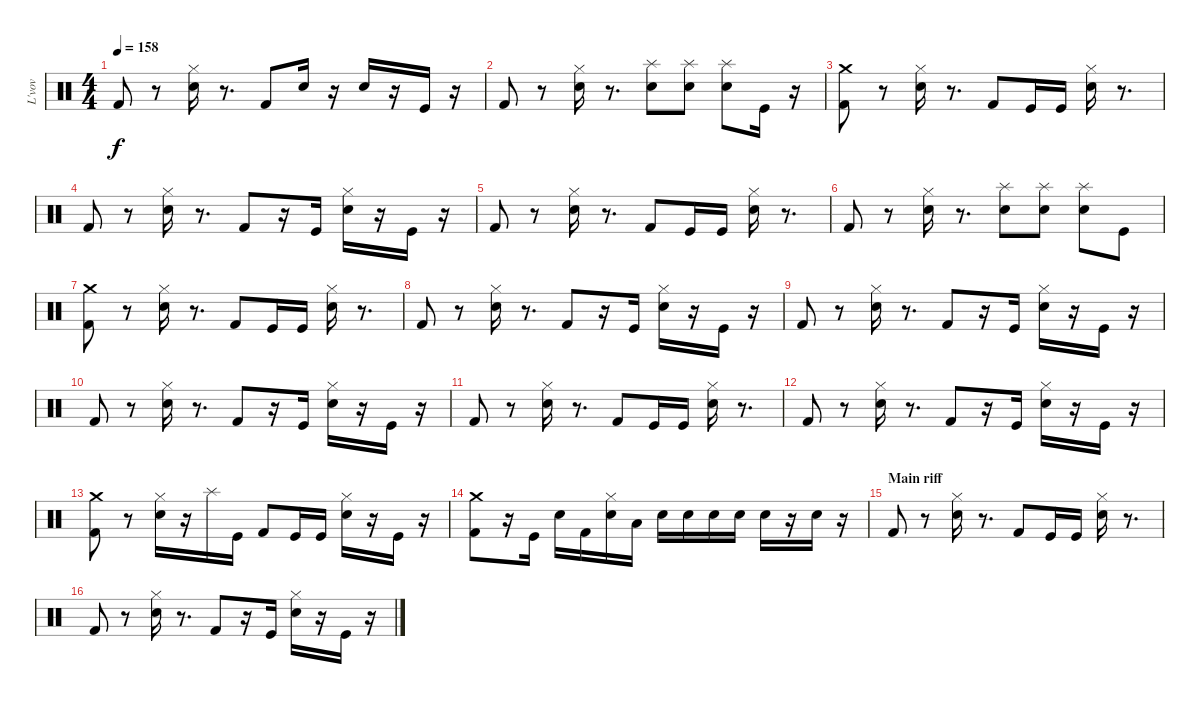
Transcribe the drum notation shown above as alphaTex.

\track ("L'vov " "L'vov ") {instrument percussion}
\staff {score}
\articulation defaults
\ts (4 4)
\tempo 158
\clef neutral
\ks c "Kick (hit) 2".8{dy f}
r.8 ("Snare (hit) 2" "Hi-Hat (closed)").16 r.8{d} "Kick (hit) 2".8 "Electric Snare (hit)".16 r.16 "Electric Snare (hit)".16 r.16 "Kick (hit)".16 r.16 |
"Kick (hit) 2".8 r.8 ("Snare (hit) 2" "Hi-Hat (closed)").16 r.8{d} ("Splash (hit)" "Electric Snare (hit)").8 ("Splash (hit)" "Electric Snare (hit)").8 ("Splash (hit)" "Electric Snare (hit)").8 "Kick (hit)".16 r.16 |
("Crash medium (hit)" "Kick (hit) 2").8 r.8 ("Snare (hit) 2" "Hi-Hat (closed)").16 r.8{d} "Kick (hit) 2".8 "Kick (hit)".16 "Kick (hit)".16 ("Snare (hit) 2" "Hi-Hat (closed)").16 r.8{d} |
"Kick (hit) 2".8 r.8 ("Snare (hit) 2" "Hi-Hat (closed)").16 r.8{d} "Kick (hit) 2".8 r.16 "Kick (hit)".16 ("Electric Snare (hit)" "Hi-Hat (closed)").16 r.16 "Kick (hit)".16 r.16 |
"Kick (hit) 2".8 r.8 ("Snare (hit) 2" "Hi-Hat (closed)").16 r.8{d} "Kick (hit) 2".8 "Kick (hit)".16 "Kick (hit)".16 ("Snare (hit) 2" "Hi-Hat (closed)").16 r.8{d} |
"Kick (hit) 2".8 r.8 ("Snare (hit) 2" "Hi-Hat (closed)").16 r.8{d} ("Splash (hit)" "Electric Snare (hit)").8 ("Splash (hit)" "Electric Snare (hit)").8 ("Splash (hit)" "Electric Snare (hit)").8 "Kick (hit)".8 |
("Crash medium (hit)" "Kick (hit) 2").8 r.8 ("Snare (hit) 2" "Hi-Hat (closed)").16 r.8{d} "Kick (hit) 2".8 "Kick (hit)".16 "Kick (hit)".16 ("Snare (hit) 2" "Hi-Hat (closed)").16 r.8{d} |
"Kick (hit) 2".8 r.8 ("Snare (hit) 2" "Hi-Hat (closed)").16 r.8{d} "Kick (hit) 2".8 r.16 "Kick (hit)".16 ("Electric Snare (hit)" "Hi-Hat (closed)").16 r.16 "Kick (hit)".16 r.16 |
"Kick (hit) 2".8 r.8 ("Snare (hit) 2" "Hi-Hat (closed)").16 r.8{d} "Kick (hit) 2".8 r.16 "Kick (hit)".16 ("Snare (hit) 2" "Hi-Hat (closed)").16 r.16 "Kick (hit)".16 r.16 |
"Kick (hit) 2".8 r.8 ("Snare (hit) 2" "Hi-Hat (closed)").16 r.8{d} "Kick (hit) 2".8 r.16 "Kick (hit)".16 ("Electric Snare (hit)" "Hi-Hat (closed)").16 r.16 "Kick (hit)".16 r.16 |
"Kick (hit) 2".8 r.8 ("Snare (hit) 2" "Hi-Hat (closed)").16 r.8{d} "Kick (hit) 2".8 "Kick (hit)".16 "Kick (hit)".16 ("Snare (hit) 2" "Hi-Hat (closed)").16 r.8{d} |
"Kick (hit) 2".8 r.8 ("Snare (hit) 2" "Hi-Hat (closed)").16 r.8{d} "Kick (hit) 2".8 r.16 "Kick (hit)".16 ("Electric Snare (hit)" "Hi-Hat (closed)").16 r.16 "Kick (hit)".16 r.16 |
("Crash medium (hit)" "Kick (hit) 2").8 r.8 ("Snare (hit) 2" "Hi-Hat (closed)").16 r.16 "Splash (hit)".16 "Kick (hit)".16 "Kick (hit) 2".8 "Kick (hit)".16 "Kick (hit)".16 ("Snare (hit) 2" "Hi-Hat (closed)").16 r.16 "Kick (hit)".16 r.16 |
("Crash medium (hit)" "Kick (hit) 2").8 r.16 "Kick (hit)".16 "Electric Snare (hit)".16 "Kick (hit) 2".16 ("Snare (hit) 2" "Hi-Hat (closed)").16 "Low Tom (hit)".16 "Snare (hit) 2".16 "Snare (hit) 2".16 "Snare (hit) 2".16 "Snare (hit) 2".16 "Electric Snare (hit)".16 r.16 "Electric Snare (hit)".16 r.16 |
\section ("" "Main riff")
"Kick (hit) 2".8 r.8 ("Snare (hit) 2" "Hi-Hat (closed)").16 r.8{d} "Kick (hit) 2".8 "Kick (hit)".16 "Kick (hit)".16 ("Snare (hit) 2" "Hi-Hat (closed)").16 r.8{d} |
"Kick (hit) 2".8 r.8 ("Snare (hit) 2" "Hi-Hat (closed)").16 r.8{d} "Kick (hit) 2".8 r.16 "Kick (hit)".16 ("Electric Snare (hit)" "Hi-Hat (closed)").16 r.16 "Kick (hit)".16 r.16
